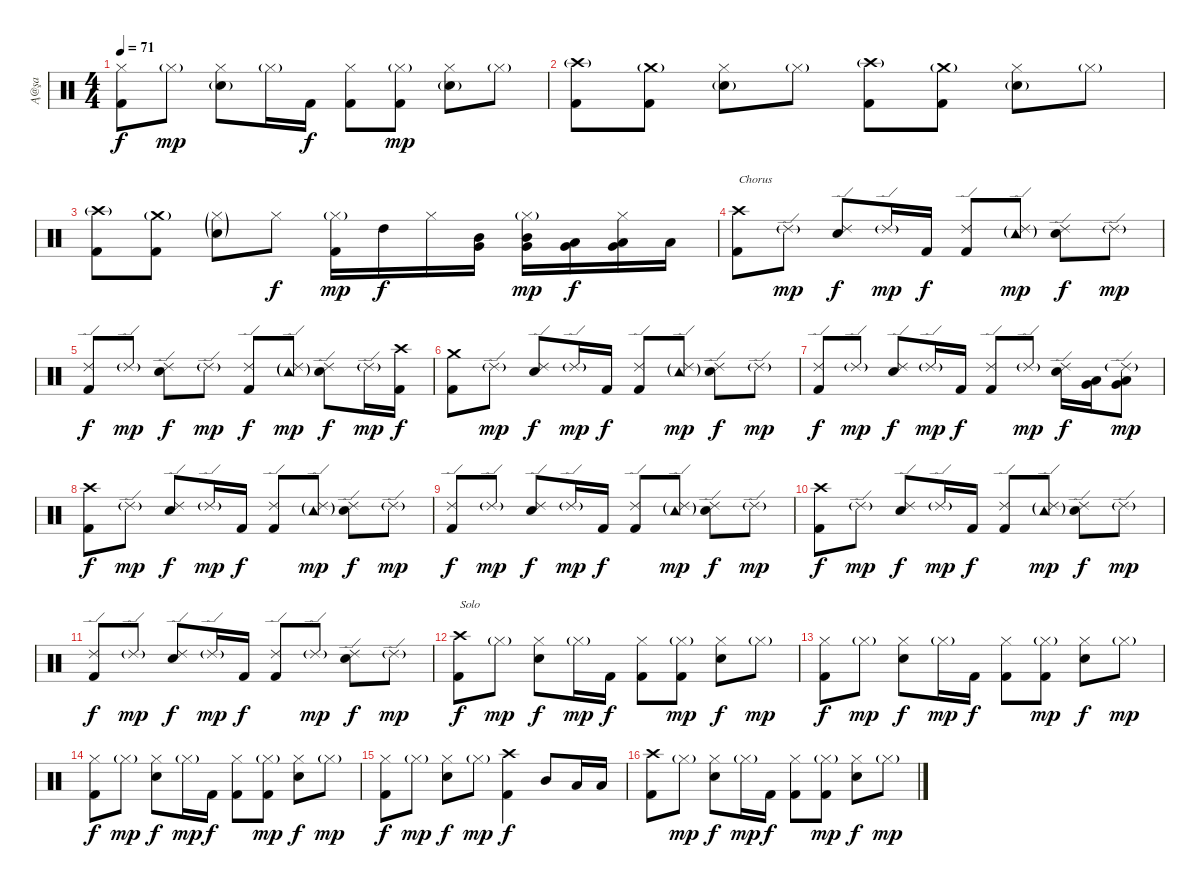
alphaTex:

\track ("Ą@şa" "Ą@şa") {instrument percussion}
\staff {score}
\articulation defaults
\ts (4 4)
\tempo 71
\clef neutral
\ks c
("Hi-Hat (closed)" "Kick (hit) 2").8{dy f} "Hi-Hat (closed)"{g}.8{dy mp} ("Hi-Hat (closed)" "Snare (hit) 2"{g}).8 "Hi-Hat (closed)"{g}.16 "Kick (hit) 2".16{dy f} ("Hi-Hat (closed)" "Kick (hit) 2").8 ("Hi-Hat (closed)"{g} "Kick (hit) 2").8{dy mp} ("Hi-Hat (closed)" "Snare (hit) 2"{g}).8 "Hi-Hat (closed)"{g}.8 |
("Crash high (hit)"{g} "Kick (hit) 2").8 ("Crash medium (hit)"{g} "Kick (hit) 2").8 ("Hi-Hat (closed)" "Snare (hit) 2"{g}).8 "Hi-Hat (closed)"{g}.8 ("Crash high (hit)"{g} "Kick (hit) 2").8 ("Crash medium (hit)"{g} "Kick (hit) 2").8 ("Hi-Hat (closed)" "Snare (hit) 2"{g}).8 "Hi-Hat (closed)"{g}.8 |
("Crash high (hit)"{g} "Kick (hit) 2").8 ("Crash medium (hit)"{g} "Kick (hit) 2").8 ("Hi-Hat (closed)"{g} "Snare (hit) 2"{g}).8 "Hi-Hat (closed)".8{dy f} ("Hi-Hat (closed)"{g} "Kick (hit) 2").16{dy mp} "High Tom (hit)".16{dy f} "Hi-Hat (closed)".16 ("Mid Tom (hit)" "Very Low Tom (hit)").16 ("Hi-Hat (closed)"{g} "Mid Tom (hit)" "Very Low Tom (hit)").16{dy mp} ("Low Tom (hit)" "Very Low Tom (hit)").16{dy f} ("Hi-Hat (closed)" "Low Tom (hit)" "Very Low Tom (hit)").16 "Low Tom (hit)".16 |
("Crash high (hit)" "Kick (hit) 2").8{txt "Chorus"} "Ride (edge) 2"{g}.8{dy mp} ("Ride (edge) 2" "Electric Snare (hit)").8{dy f} "Ride (edge) 2"{g}.16{dy mp} "Kick (hit) 2".16{dy f} ("Ride (edge) 2" "Kick (hit) 2").8 ("Ride (edge) 2"{g} "Tambourine (hit)"{g}).8{dy mp} ("Ride (edge) 2" "Electric Snare (hit)").8{dy f} "Ride (edge) 2"{g}.8{dy mp} |
("Ride (edge) 2" "Kick (hit) 2").8{dy f} "Ride (edge) 2"{g}.8{dy mp} ("Ride (edge) 2" "Electric Snare (hit)").8{dy f} "Ride (edge) 2"{g}.8{dy mp} ("Ride (edge) 2" "Kick (hit) 2").8{dy f} ("Ride (edge) 2"{g} "Tambourine (hit)"{g}).8{dy mp} ("Ride (edge) 2" "Electric Snare (hit)").8{dy f} "Ride (edge) 2"{g}.16{dy mp} ("Crash high (hit)" "Kick (hit) 2").16{dy f} |
("Crash medium (hit)" "Kick (hit) 2").8 "Ride (edge) 2"{g}.8{dy mp} ("Ride (edge) 2" "Electric Snare (hit)").8{dy f} "Ride (edge) 2"{g}.16{dy mp} "Kick (hit) 2".16{dy f} ("Ride (edge) 2" "Kick (hit) 2").8 ("Ride (edge) 2"{g} "Tambourine (hit)"{g}).8{dy mp} ("Ride (edge) 2" "Electric Snare (hit)").8{dy f} "Ride (edge) 2"{g}.8{dy mp} |
("Ride (edge) 2" "Kick (hit) 2").8{dy f} "Ride (edge) 2"{g}.8{dy mp} ("Ride (edge) 2" "Electric Snare (hit)").8{dy f} "Ride (edge) 2"{g}.16{dy mp} "Kick (hit) 2".16{dy f} ("Ride (edge) 2" "Kick (hit) 2").8 "Ride (edge) 2"{g}.8{dy mp} ("Ride (edge) 2" "Electric Snare (hit)").16{dy f} ("Low Tom (hit)" "Very Low Tom (hit)").16 ("Ride (edge) 2"{g} "Low Tom (hit)" "Very Low Tom (hit)").8{dy mp} |
("Crash high (hit)" "Kick (hit) 2").8{dy f} "Ride (edge) 2"{g}.8{dy mp} ("Ride (edge) 2" "Electric Snare (hit)").8{dy f} "Ride (edge) 2"{g}.16{dy mp} "Kick (hit) 2".16{dy f} ("Ride (edge) 2" "Kick (hit) 2").8 ("Ride (edge) 2"{g} "Tambourine (hit)"{g}).8{dy mp} ("Ride (edge) 2" "Electric Snare (hit)").8{dy f} "Ride (edge) 2"{g}.8{dy mp} |
("Ride (edge) 2" "Kick (hit) 2").8{dy f} "Ride (edge) 2"{g}.8{dy mp} ("Ride (edge) 2" "Electric Snare (hit)").8{dy f} "Ride (edge) 2"{g}.16{dy mp} "Kick (hit) 2".16{dy f} ("Ride (edge) 2" "Kick (hit) 2").8 ("Ride (edge) 2"{g} "Tambourine (hit)"{g}).8{dy mp} ("Ride (edge) 2" "Electric Snare (hit)").8{dy f} "Ride (edge) 2"{g}.8{dy mp} |
("Crash high (hit)" "Kick (hit) 2").8{dy f} "Ride (edge) 2"{g}.8{dy mp} ("Ride (edge) 2" "Electric Snare (hit)").8{dy f} "Ride (edge) 2"{g}.16{dy mp} "Kick (hit) 2".16{dy f} ("Ride (edge) 2" "Kick (hit) 2").8 ("Ride (edge) 2"{g} "Tambourine (hit)"{g}).8{dy mp} ("Ride (edge) 2" "Electric Snare (hit)").8{dy f} "Ride (edge) 2"{g}.8{dy mp} |
("Ride (edge) 2" "Kick (hit) 2").8{dy f} "Ride (edge) 2"{g}.8{dy mp} ("Ride (edge) 2" "Electric Snare (hit)").8{dy f} "Ride (edge) 2"{g}.16{dy mp} "Kick (hit) 2".16{dy f} ("Ride (edge) 2" "Kick (hit) 2").8 "Ride (edge) 2"{g}.8{dy mp} ("Ride (edge) 2" "Electric Snare (hit)").8{dy f} "Ride (edge) 2"{g}.8{dy mp} |
("Crash high (hit)" "Kick (hit) 2").8{txt "Solo" dy f} "Hi-Hat (closed)"{g}.8{dy mp} ("Hi-Hat (closed)" "Electric Snare (hit)").8{dy f} "Hi-Hat (closed)"{g}.16{dy mp} "Kick (hit) 2".16{dy f} ("Hi-Hat (closed)" "Kick (hit) 2").8 ("Hi-Hat (closed)"{g} "Kick (hit) 2").8{dy mp} ("Hi-Hat (closed)" "Electric Snare (hit)").8{dy f} "Hi-Hat (closed)"{g}.8{dy mp} |
("Hi-Hat (closed)" "Kick (hit) 2").8{dy f} "Hi-Hat (closed)"{g}.8{dy mp} ("Hi-Hat (closed)" "Electric Snare (hit)").8{dy f} "Hi-Hat (closed)"{g}.16{dy mp} "Kick (hit) 2".16{dy f} ("Hi-Hat (closed)" "Kick (hit) 2").8 ("Hi-Hat (closed)"{g} "Kick (hit) 2").8{dy mp} ("Hi-Hat (closed)" "Electric Snare (hit)").8{dy f} "Hi-Hat (closed)"{g}.8{dy mp} |
("Hi-Hat (closed)" "Kick (hit) 2").8{dy f} "Hi-Hat (closed)"{g}.8{dy mp} ("Hi-Hat (closed)" "Electric Snare (hit)").8{dy f} "Hi-Hat (closed)"{g}.16{dy mp} "Kick (hit) 2".16{dy f} ("Hi-Hat (closed)" "Kick (hit) 2").8 ("Hi-Hat (closed)"{g} "Kick (hit) 2").8{dy mp} ("Hi-Hat (closed)" "Electric Snare (hit)").8{dy f} "Hi-Hat (closed)"{g}.8{dy mp} |
("Hi-Hat (closed)" "Kick (hit) 2").8{dy f} "Hi-Hat (closed)"{g}.8{dy mp} ("Hi-Hat (closed)" "Electric Snare (hit)").8{dy f} "Hi-Hat (closed)"{g}.8{dy mp} ("Crash high (hit)" "Kick (hit) 2").4{dy f} "Mid Tom (hit)".8 "Low Tom (hit)".16 "Low Tom (hit)".16 |
("Crash high (hit)" "Kick (hit) 2").8 "Hi-Hat (closed)"{g}.8{dy mp} ("Hi-Hat (closed)" "Electric Snare (hit)").8{dy f} "Hi-Hat (closed)"{g}.16{dy mp} "Kick (hit) 2".16{dy f} ("Hi-Hat (closed)" "Kick (hit) 2").8 ("Hi-Hat (closed)"{g} "Kick (hit) 2").8{dy mp} ("Hi-Hat (closed)" "Electric Snare (hit)").8{dy f} "Hi-Hat (closed)"{g}.8{dy mp}
